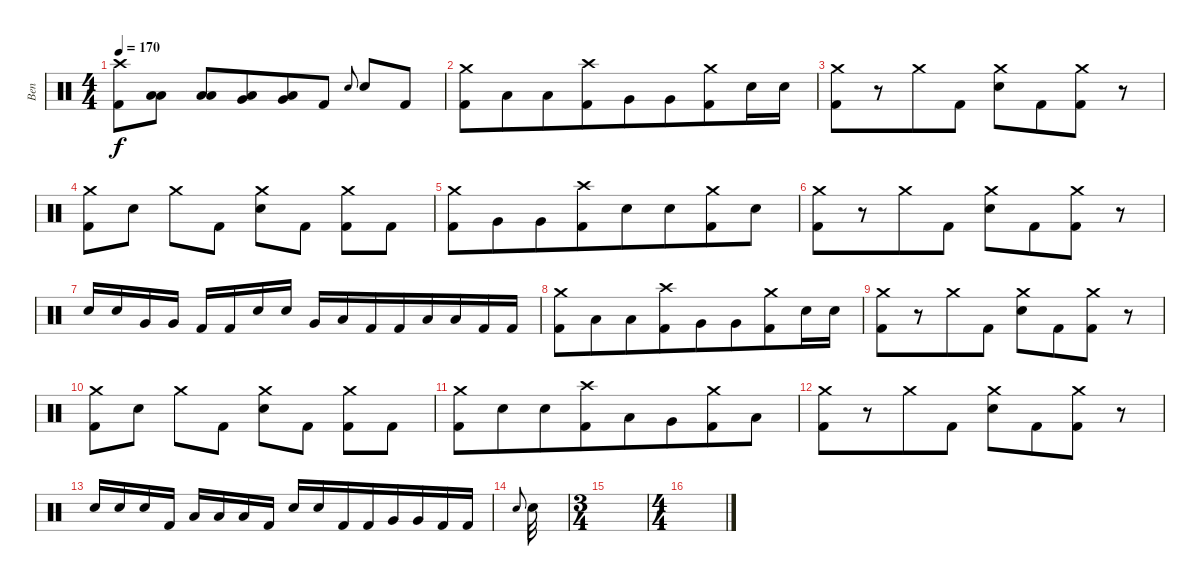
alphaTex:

\track ("Ben" "Ben") {instrument percussion}
\staff {score}
\articulation defaults
\ts (4 4)
\tempo 170
\clef neutral
\ks c
("Kick (hit) 2" "Crash high (hit)").8{dy f beam merge} ("Low Tom (hit)" "Low Floor Tom (hit)").8 ("Low Tom (hit)" "Low Floor Tom (hit)").8{beam merge} ("Very Low Tom (hit)" "Low Floor Tom (hit)").8{beam merge} ("Very Low Tom (hit)" "Low Floor Tom (hit)").8 "Kick (hit) 2".8 "Electric Snare (hit)".8{gr onbeat} "Electric Snare (hit)".8{beam merge} "Kick (hit) 2".8 |
("Crash medium (hit)" "Kick (hit) 2").8 "Low Floor Tom (hit)".8{beam merge} "Low Floor Tom (hit)".8{beam merge} ("Crash high (hit)" "Kick (hit) 2").8{beam merge} "Very Low Tom (hit)".8 "Very Low Tom (hit)".8{beam merge} ("Kick (hit) 2" "Crash medium (hit)").8 "Electric Snare (hit)".16{beam merge} "Electric Snare (hit)".16 |
("Crash medium (hit)" "Kick (hit) 2").8{beam merge} r.8 "Crash medium (hit)".8 "Kick (hit) 2".8 ("Crash medium (hit)" "Electric Snare (hit)").8{beam merge} "Kick (hit) 2".8{beam merge} ("Crash medium (hit)" "Kick (hit) 2").8{beam merge} r.8 |
("Crash medium (hit)" "Kick (hit) 2").8 "Electric Snare (hit)".8 "Crash medium (hit)".8{beam merge} "Kick (hit) 2".8 ("Crash medium (hit)" "Electric Snare (hit)").8 "Kick (hit) 2".8 ("Crash medium (hit)" "Kick (hit) 2").8 "Kick (hit) 2".8 |
("Crash medium (hit)" "Kick (hit) 2").8 "Very Low Tom (hit)".8{beam merge} "Very Low Tom (hit)".8{beam merge} ("Crash high (hit)" "Kick (hit) 2").8{beam merge} "Electric Snare (hit)".8 "Electric Snare (hit)".8{beam merge} ("Kick (hit) 2" "Crash medium (hit)").8 "Electric Snare (hit)".8 |
("Crash medium (hit)" "Kick (hit) 2").8{beam merge} r.8 "Crash medium (hit)".8 "Kick (hit) 2".8 ("Crash medium (hit)" "Electric Snare (hit)").8{beam merge} "Kick (hit) 2".8{beam merge} ("Crash medium (hit)" "Kick (hit) 2").8{beam merge} r.8 |
"Electric Snare (hit)".16{beam merge} "Electric Snare (hit)".16{beam merge} "Very Low Tom (hit)".16{beam merge} "Very Low Tom (hit)".16 "Kick (hit) 2".16 "Kick (hit) 2".16{beam merge} "Electric Snare (hit)".16{beam merge} "Electric Snare (hit)".16 "Very Low Tom (hit)".16{beam merge} "Low Floor Tom (hit)".16{beam merge} "Kick (hit) 2".16{beam merge} "Kick (hit) 2".16{beam merge} "Low Floor Tom (hit)".16{beam merge} "Low Floor Tom (hit)".16{beam merge} "Kick (hit) 2".16{beam merge} "Kick (hit) 2".16 |
("Crash medium (hit)" "Kick (hit) 2").8 "Low Floor Tom (hit)".8{beam merge} "Low Floor Tom (hit)".8{beam merge} ("Crash high (hit)" "Kick (hit) 2").8{beam merge} "Very Low Tom (hit)".8 "Very Low Tom (hit)".8{beam merge} ("Kick (hit) 2" "Crash medium (hit)").8 "Electric Snare (hit)".16{beam merge} "Electric Snare (hit)".16 |
("Crash medium (hit)" "Kick (hit) 2").8{beam merge} r.8 "Crash medium (hit)".8 "Kick (hit) 2".8 ("Crash medium (hit)" "Electric Snare (hit)").8{beam merge} "Kick (hit) 2".8{beam merge} ("Crash medium (hit)" "Kick (hit) 2").8{beam merge} r.8 |
("Crash medium (hit)" "Kick (hit) 2").8 "Electric Snare (hit)".8 "Crash medium (hit)".8{beam merge} "Kick (hit) 2".8 ("Crash medium (hit)" "Electric Snare (hit)").8 "Kick (hit) 2".8 ("Crash medium (hit)" "Kick (hit) 2").8 "Kick (hit) 2".8 |
("Crash medium (hit)" "Kick (hit) 2").8 "Electric Snare (hit)".8{beam merge} "Electric Snare (hit)".8{beam merge} ("Crash high (hit)" "Kick (hit) 2").8{beam merge} "Low Tom (hit)".8 "Very Low Tom (hit)".8{beam merge} ("Kick (hit) 2" "Crash medium (hit)").8 "Low Floor Tom (hit)".8 |
("Crash medium (hit)" "Kick (hit) 2").8{beam merge} r.8 "Crash medium (hit)".8 "Kick (hit) 2".8 ("Crash medium (hit)" "Electric Snare (hit)").8{beam merge} "Kick (hit) 2".8{beam merge} ("Crash medium (hit)" "Kick (hit) 2").8{beam merge} r.8 |
"Electric Snare (hit)".16{beam merge} "Electric Snare (hit)".16{beam merge} "Electric Snare (hit)".16{beam merge} "Kick (hit) 2".16 "Low Tom (hit)".16 "Low Tom (hit)".16{beam merge} "Low Tom (hit)".16{beam merge} "Kick (hit) 2".16 "Electric Snare (hit)".16{beam merge} "Electric Snare (hit)".16{beam merge} "Kick (hit) 2".16{beam merge} "Kick (hit) 2".16{beam merge} "Very Low Tom (hit)".16{beam merge} "Very Low Tom (hit)".16{beam merge} "Kick (hit) 2".16{beam merge} "Kick (hit) 2".16 |
"Electric Snare (hit)".8{gr onbeat beam merge} "Electric Snare (hit)".32 |
\ts (3 4)
|
\ts (4 4)
